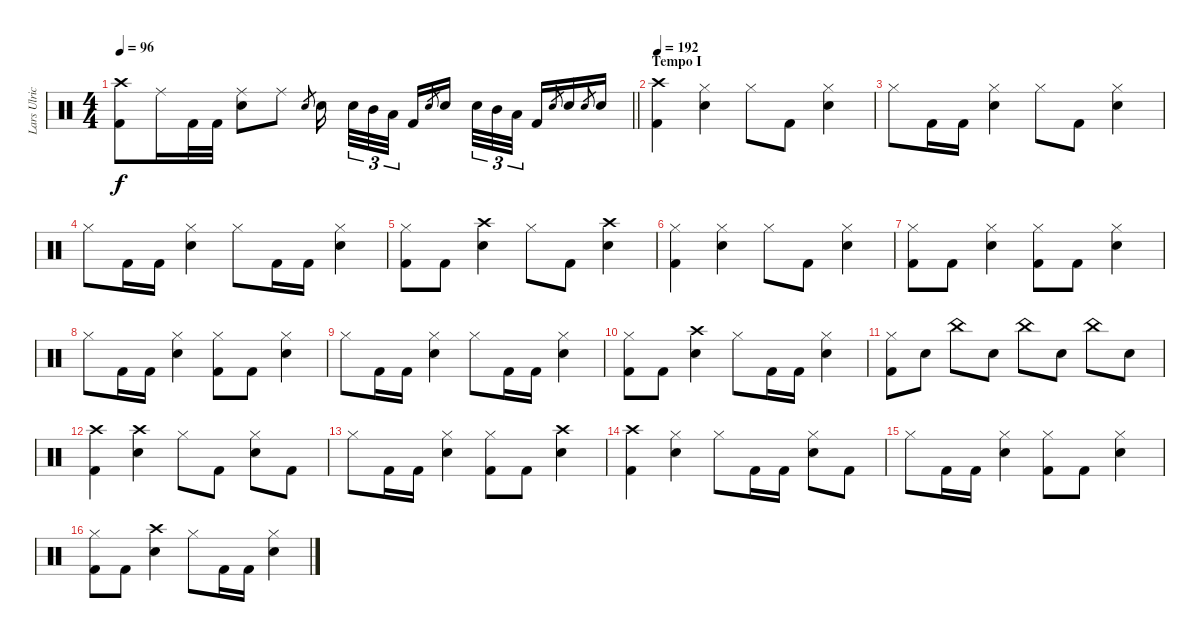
\track ("Lars Ulrich - Drums" "Lars Ulric") {instrument percussion}
\staff {score}
\articulation defaults
\ts (4 4)
\tempo 96
\clef neutral
\barLineRight lightlight
\ks c
("Crash high (hit)" "Kick (hit) 2").8{dy f} "Ride (middle)".16 "Kick (hit) 2".32 "Kick (hit) 2".32 ("Ride (middle)" "Snare (hit) 2").8 "Ride (middle)".8 "Snare (hit) 2".8{gr} "Snare (hit) 2".16 "Snare (hit) 2".32{tu (3 2)} "Mid Tom (hit)".32{tu (3 2)} "Low Floor Tom (hit)".32{tu (3 2)} "Kick (hit) 2".16 "Snare (hit) 2".8{gr} "Snare (hit) 2".16 "Snare (hit) 2".32{tu (3 2)} "Mid Tom (hit)".32{tu (3 2)} "Low Floor Tom (hit)".32{tu (3 2)} "Kick (hit) 2".16 "Snare (hit) 2".8{gr} "Snare (hit) 2".16 "Snare (hit) 2".8{gr} "Snare (hit) 2".16 |
\section ("" "Tempo I")
\tempo 192
("Crash high (hit)" "Kick (hit) 2").4 ("Hi-Hat (closed)" "Snare (hit) 2").4 "Hi-Hat (closed)".8 "Kick (hit) 2".8 ("Hi-Hat (closed)" "Snare (hit) 2").4 |
"Hi-Hat (closed)".8 "Kick (hit) 2".16 "Kick (hit) 2".16 ("Hi-Hat (closed)" "Snare (hit) 2").4 "Hi-Hat (closed)".8 "Kick (hit) 2".8 ("Hi-Hat (closed)" "Snare (hit) 2").4 |
"Hi-Hat (closed)".8 "Kick (hit) 2".16 "Kick (hit) 2".16 ("Hi-Hat (closed)" "Snare (hit) 2").4 "Hi-Hat (closed)".8 "Kick (hit) 2".16 "Kick (hit) 2".16 ("Hi-Hat (closed)" "Snare (hit) 2").4 |
("Hi-Hat (closed)" "Kick (hit) 2").8 "Kick (hit) 2".8 ("Crash high (hit)" "Snare (hit) 2").4 "Hi-Hat (closed)".8 "Kick (hit) 2".8 ("Crash high (hit)" "Snare (hit) 2").4 |
("Hi-Hat (closed)" "Kick (hit) 2").4 ("Hi-Hat (closed)" "Snare (hit) 2").4 "Hi-Hat (closed)".8 "Kick (hit) 2".8 ("Hi-Hat (closed)" "Snare (hit) 2").4 |
("Hi-Hat (closed)" "Kick (hit) 2").8 "Kick (hit) 2".8 ("Hi-Hat (closed)" "Snare (hit) 2").4 ("Hi-Hat (closed)" "Kick (hit) 2").8 "Kick (hit) 2".8 ("Hi-Hat (closed)" "Snare (hit) 2").4 |
"Hi-Hat (closed)".8 "Kick (hit) 2".16 "Kick (hit) 2".16 ("Hi-Hat (closed)" "Snare (hit) 2").4 ("Hi-Hat (closed)" "Kick (hit) 2").8 "Kick (hit) 2".8 ("Hi-Hat (closed)" "Snare (hit) 2").4 |
"Hi-Hat (closed)".8 "Kick (hit) 2".16 "Kick (hit) 2".16 ("Hi-Hat (closed)" "Snare (hit) 2").4 "Hi-Hat (closed)".8 "Kick (hit) 2".16 "Kick (hit) 2".16 ("Hi-Hat (closed)" "Snare (hit) 2").4 |
("Hi-Hat (closed)" "Kick (hit) 2").8 "Kick (hit) 2".8 ("Crash high (hit)" "Snare (hit) 2").4 "Hi-Hat (closed)".8 "Kick (hit) 2".16 "Kick (hit) 2".16 ("Hi-Hat (closed)" "Snare (hit) 2").4 |
("Hi-Hat (closed)" "Kick (hit) 2").8 "Snare (hit) 2".8 "China (hit)".8 "Snare (hit) 2".8 "China (hit)".8 "Snare (hit) 2".8 "China (hit)".8 "Snare (hit) 2".8 |
("Crash high (hit)" "Kick (hit) 2").4 ("Crash high (hit)" "Snare (hit) 2").4 "Hi-Hat (closed)".8 "Kick (hit) 2".8 ("Hi-Hat (closed)" "Snare (hit) 2").8 "Kick (hit) 2".8 |
"Hi-Hat (closed)".8 "Kick (hit) 2".16 "Kick (hit) 2".16 ("Hi-Hat (closed)" "Snare (hit) 2").4 ("Hi-Hat (closed)" "Kick (hit) 2").8 "Kick (hit) 2".8 ("Crash high (hit)" "Snare (hit) 2").4 |
("Crash high (hit)" "Kick (hit) 2").4 ("Hi-Hat (closed)" "Snare (hit) 2").4 "Hi-Hat (closed)".8 "Kick (hit) 2".16 "Kick (hit) 2".16 ("Hi-Hat (closed)" "Snare (hit) 2").8 "Kick (hit) 2".8 |
"Hi-Hat (closed)".8 "Kick (hit) 2".16 "Kick (hit) 2".16 ("Hi-Hat (closed)" "Snare (hit) 2").4 ("Hi-Hat (closed)" "Kick (hit) 2").8 "Kick (hit) 2".8 ("Hi-Hat (closed)" "Snare (hit) 2").4 |
("Hi-Hat (closed)" "Kick (hit) 2").8 "Kick (hit) 2".8 ("Crash high (hit)" "Snare (hit) 2").4 "Hi-Hat (closed)".8 "Kick (hit) 2".16 "Kick (hit) 2".16 ("Hi-Hat (closed)" "Snare (hit) 2").4
